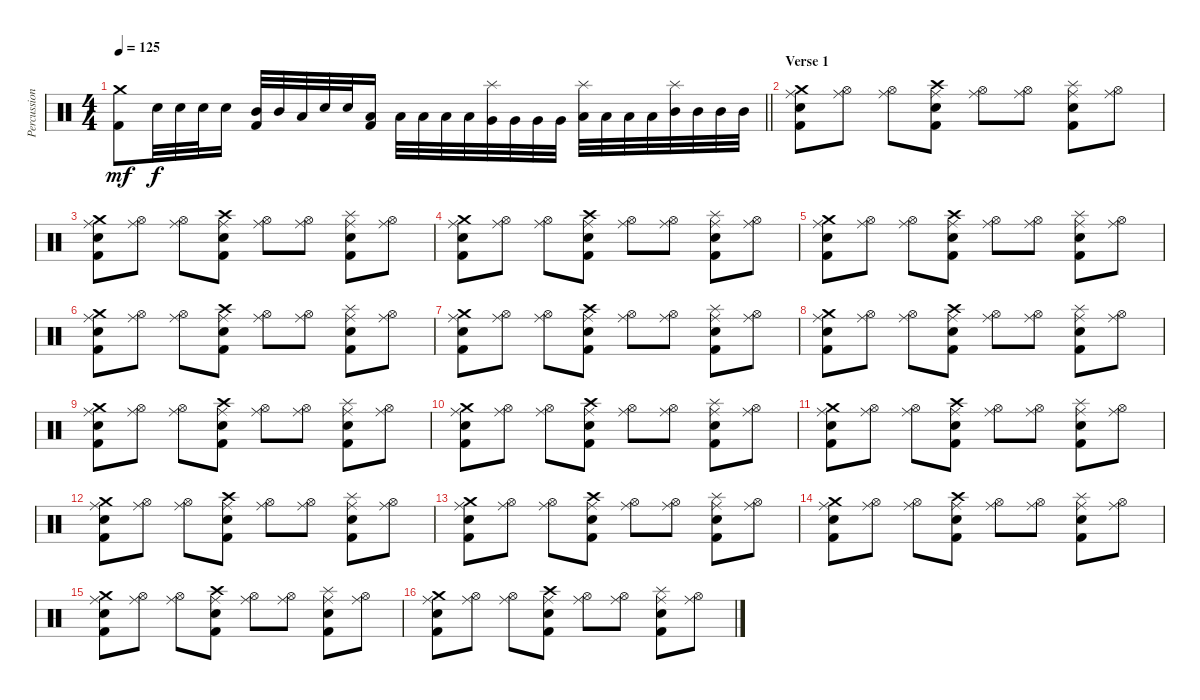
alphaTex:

\track ("Percussion" "Percussion") {instrument percussion}
\staff {score}
\articulation defaults
\ts (4 4)
\tempo 125
\clef neutral
\barLineRight lightlight
\ks c
("Kick (hit) 2" "Crash medium (hit)").8{dy mf} "Snare (hit) 2".32{dy f} "Snare (hit) 2".32 "Snare (hit) 2".32 "Snare (hit) 2".16 ("Kick (hit) 2" "Mid Tom (hit)").32 "Mid Tom (hit)".32 "Low Tom (hit)".32 "Snare (hit) 2".32 "Snare (hit) 2".32 ("Kick (hit) 2" "Low Tom (hit)").16 "Low Tom (hit)".32 "Low Tom (hit)".32 "Low Tom (hit)".32 "Low Tom (hit)".32 ("Very Low Tom (hit)" "Splash (hit)").32 "Very Low Tom (hit)".32 "Very Low Tom (hit)".32 "Very Low Tom (hit)".32 ("Low Floor Tom (hit)" "Splash (hit)").32 "Low Floor Tom (hit)".32 "Low Floor Tom (hit)".32 "Low Floor Tom (hit)".32 ("Mid Tom (hit)" "Splash (hit)").32 "Mid Tom (hit)".32 "Mid Tom (hit)".32 "Mid Tom (hit)".32 |
\section ("" "Verse 1")
("Crash medium (hit)" "Ride (middle)" "Kick (hit) 2" "Electric Snare (hit)").8 ("Hi-Hat (open)" "Ride (middle)").8 ("Hi-Hat (open)" "Ride (middle)").8 ("Crash high (hit)" "Ride (middle)" "Kick (hit) 2" "Electric Snare (hit)").8 ("Hi-Hat (open)" "Ride (middle)").8 ("Hi-Hat (open)" "Ride (middle)").8 ("Splash (hit)" "Ride (middle)" "Kick (hit) 2" "Electric Snare (hit)").8 ("Hi-Hat (open)" "Ride (middle)").8 |
("Crash medium (hit)" "Ride (middle)" "Kick (hit) 2" "Electric Snare (hit)").8 ("Hi-Hat (open)" "Ride (middle)").8 ("Hi-Hat (open)" "Ride (middle)").8 ("Crash high (hit)" "Ride (middle)" "Kick (hit) 2" "Electric Snare (hit)").8 ("Hi-Hat (open)" "Ride (middle)").8 ("Hi-Hat (open)" "Ride (middle)").8 ("Splash (hit)" "Ride (middle)" "Kick (hit) 2" "Electric Snare (hit)").8 ("Hi-Hat (open)" "Ride (middle)").8 |
("Crash medium (hit)" "Ride (middle)" "Kick (hit) 2" "Electric Snare (hit)").8 ("Hi-Hat (open)" "Ride (middle)").8 ("Hi-Hat (open)" "Ride (middle)").8 ("Crash high (hit)" "Ride (middle)" "Kick (hit) 2" "Electric Snare (hit)").8 ("Hi-Hat (open)" "Ride (middle)").8 ("Hi-Hat (open)" "Ride (middle)").8 ("Splash (hit)" "Ride (middle)" "Kick (hit) 2" "Electric Snare (hit)").8 ("Hi-Hat (open)" "Ride (middle)").8 |
("Crash medium (hit)" "Ride (middle)" "Kick (hit) 2" "Electric Snare (hit)").8 ("Hi-Hat (open)" "Ride (middle)").8 ("Hi-Hat (open)" "Ride (middle)").8 ("Crash high (hit)" "Ride (middle)" "Kick (hit) 2" "Electric Snare (hit)").8 ("Hi-Hat (open)" "Ride (middle)").8 ("Hi-Hat (open)" "Ride (middle)").8 ("Splash (hit)" "Ride (middle)" "Kick (hit) 2" "Electric Snare (hit)").8 ("Hi-Hat (open)" "Ride (middle)").8 |
("Crash medium (hit)" "Ride (middle)" "Kick (hit) 2" "Electric Snare (hit)").8 ("Hi-Hat (open)" "Ride (middle)").8 ("Hi-Hat (open)" "Ride (middle)").8 ("Crash high (hit)" "Ride (middle)" "Kick (hit) 2" "Electric Snare (hit)").8 ("Hi-Hat (open)" "Ride (middle)").8 ("Hi-Hat (open)" "Ride (middle)").8 ("Splash (hit)" "Ride (middle)" "Kick (hit) 2" "Electric Snare (hit)").8 ("Hi-Hat (open)" "Ride (middle)").8 |
("Crash medium (hit)" "Ride (middle)" "Kick (hit) 2" "Electric Snare (hit)").8 ("Hi-Hat (open)" "Ride (middle)").8 ("Hi-Hat (open)" "Ride (middle)").8 ("Crash high (hit)" "Ride (middle)" "Kick (hit) 2" "Electric Snare (hit)").8 ("Hi-Hat (open)" "Ride (middle)").8 ("Hi-Hat (open)" "Ride (middle)").8 ("Splash (hit)" "Ride (middle)" "Kick (hit) 2" "Electric Snare (hit)").8 ("Hi-Hat (open)" "Ride (middle)").8 |
("Crash medium (hit)" "Ride (middle)" "Kick (hit) 2" "Electric Snare (hit)").8 ("Hi-Hat (open)" "Ride (middle)").8 ("Hi-Hat (open)" "Ride (middle)").8 ("Crash high (hit)" "Ride (middle)" "Kick (hit) 2" "Electric Snare (hit)").8 ("Hi-Hat (open)" "Ride (middle)").8 ("Hi-Hat (open)" "Ride (middle)").8 ("Splash (hit)" "Ride (middle)" "Kick (hit) 2" "Electric Snare (hit)").8 ("Hi-Hat (open)" "Ride (middle)").8 |
("Crash medium (hit)" "Ride (middle)" "Kick (hit) 2" "Electric Snare (hit)").8 ("Hi-Hat (open)" "Ride (middle)").8 ("Hi-Hat (open)" "Ride (middle)").8 ("Crash high (hit)" "Ride (middle)" "Kick (hit) 2" "Electric Snare (hit)").8 ("Hi-Hat (open)" "Ride (middle)").8 ("Hi-Hat (open)" "Ride (middle)").8 ("Splash (hit)" "Ride (middle)" "Kick (hit) 2" "Electric Snare (hit)").8 ("Hi-Hat (open)" "Ride (middle)").8 |
("Crash medium (hit)" "Ride (middle)" "Kick (hit) 2" "Electric Snare (hit)").8 ("Hi-Hat (open)" "Ride (middle)").8 ("Hi-Hat (open)" "Ride (middle)").8 ("Crash high (hit)" "Ride (middle)" "Kick (hit) 2" "Electric Snare (hit)").8 ("Hi-Hat (open)" "Ride (middle)").8 ("Hi-Hat (open)" "Ride (middle)").8 ("Splash (hit)" "Ride (middle)" "Kick (hit) 2" "Electric Snare (hit)").8 ("Hi-Hat (open)" "Ride (middle)").8 |
("Crash medium (hit)" "Ride (middle)" "Kick (hit) 2" "Electric Snare (hit)").8 ("Hi-Hat (open)" "Ride (middle)").8 ("Hi-Hat (open)" "Ride (middle)").8 ("Crash high (hit)" "Ride (middle)" "Kick (hit) 2" "Electric Snare (hit)").8 ("Hi-Hat (open)" "Ride (middle)").8 ("Hi-Hat (open)" "Ride (middle)").8 ("Splash (hit)" "Ride (middle)" "Kick (hit) 2" "Electric Snare (hit)").8 ("Hi-Hat (open)" "Ride (middle)").8 |
("Crash medium (hit)" "Ride (middle)" "Kick (hit) 2" "Electric Snare (hit)").8 ("Hi-Hat (open)" "Ride (middle)").8 ("Hi-Hat (open)" "Ride (middle)").8 ("Crash high (hit)" "Ride (middle)" "Kick (hit) 2" "Electric Snare (hit)").8 ("Hi-Hat (open)" "Ride (middle)").8 ("Hi-Hat (open)" "Ride (middle)").8 ("Splash (hit)" "Ride (middle)" "Kick (hit) 2" "Electric Snare (hit)").8 ("Hi-Hat (open)" "Ride (middle)").8 |
("Crash medium (hit)" "Ride (middle)" "Kick (hit) 2" "Electric Snare (hit)").8 ("Hi-Hat (open)" "Ride (middle)").8 ("Hi-Hat (open)" "Ride (middle)").8 ("Crash high (hit)" "Ride (middle)" "Kick (hit) 2" "Electric Snare (hit)").8 ("Hi-Hat (open)" "Ride (middle)").8 ("Hi-Hat (open)" "Ride (middle)").8 ("Splash (hit)" "Ride (middle)" "Kick (hit) 2" "Electric Snare (hit)").8 ("Hi-Hat (open)" "Ride (middle)").8 |
("Crash medium (hit)" "Ride (middle)" "Kick (hit) 2" "Electric Snare (hit)").8 ("Hi-Hat (open)" "Ride (middle)").8 ("Hi-Hat (open)" "Ride (middle)").8 ("Crash high (hit)" "Ride (middle)" "Kick (hit) 2" "Electric Snare (hit)").8 ("Hi-Hat (open)" "Ride (middle)").8 ("Hi-Hat (open)" "Ride (middle)").8 ("Splash (hit)" "Ride (middle)" "Kick (hit) 2" "Electric Snare (hit)").8 ("Hi-Hat (open)" "Ride (middle)").8 |
("Crash medium (hit)" "Ride (middle)" "Kick (hit) 2" "Electric Snare (hit)").8 ("Hi-Hat (open)" "Ride (middle)").8 ("Hi-Hat (open)" "Ride (middle)").8 ("Crash high (hit)" "Ride (middle)" "Kick (hit) 2" "Electric Snare (hit)").8 ("Hi-Hat (open)" "Ride (middle)").8 ("Hi-Hat (open)" "Ride (middle)").8 ("Splash (hit)" "Ride (middle)" "Kick (hit) 2" "Electric Snare (hit)").8 ("Hi-Hat (open)" "Ride (middle)").8 |
("Crash medium (hit)" "Ride (middle)" "Kick (hit) 2" "Electric Snare (hit)").8 ("Hi-Hat (open)" "Ride (middle)").8 ("Hi-Hat (open)" "Ride (middle)").8 ("Crash high (hit)" "Ride (middle)" "Kick (hit) 2" "Electric Snare (hit)").8 ("Hi-Hat (open)" "Ride (middle)").8 ("Hi-Hat (open)" "Ride (middle)").8 ("Splash (hit)" "Ride (middle)" "Kick (hit) 2" "Electric Snare (hit)").8 ("Hi-Hat (open)" "Ride (middle)").8
